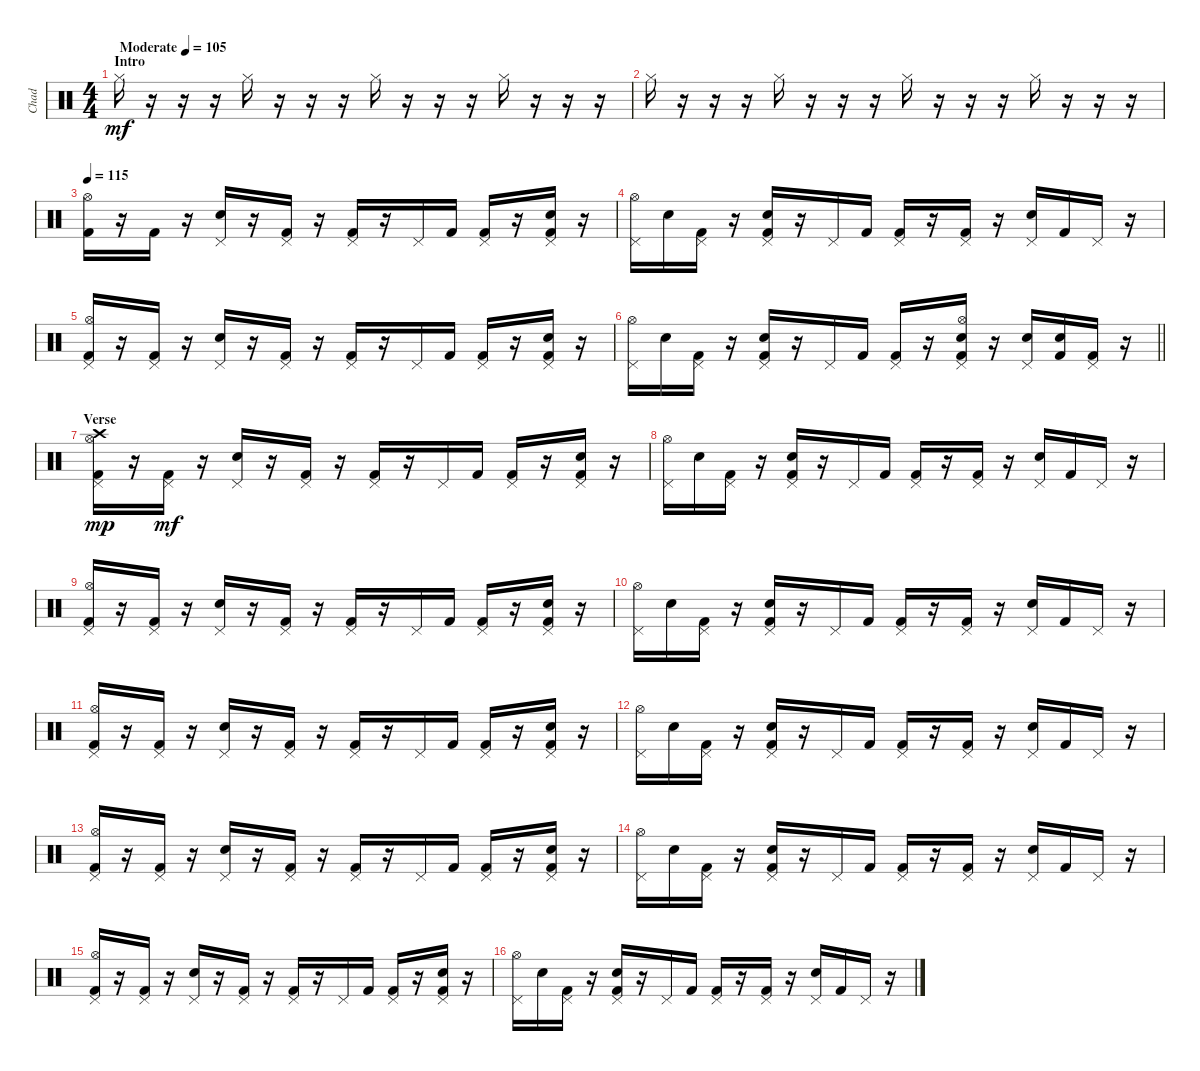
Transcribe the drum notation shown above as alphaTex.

\track ("Chad" "Chad") {instrument percussion}
\staff {score}
\articulation defaults
\ts (4 4)
\section ("" "Intro")
\tempo (105 "Moderate")
\clef neutral
\ks c "Hi-Hat (closed)".16{dy mf volume 0}
r.16{volume 1} r.16 r.16 "Hi-Hat (closed)".16 r.16 r.16 r.16 "Hi-Hat (closed)".16 r.16 r.16 r.16 "Hi-Hat (closed)".16 r.16 r.16 r.16 |
"Hi-Hat (closed)".16 r.16 r.16 r.16 "Hi-Hat (closed)".16 r.16 r.16 r.16 "Hi-Hat (closed)".16 r.16 r.16 r.16 "Hi-Hat (closed)".16 r.16 r.16 r.16 |
\tempo 115
("Kick (hit) 2" "Hi-Hat (open)").16{volume 16} r.16 "Kick (hit) 2".16 r.16 ("Snare (hit) 2" "Pedal Hi-Hat (hit)").16 r.16 ("Kick (hit) 2" "Pedal Hi-Hat (hit)").16 r.16 ("Kick (hit) 2" "Pedal Hi-Hat (hit)").16 r.16 "Pedal Hi-Hat (hit)".16 "Kick (hit) 2".16 ("Kick (hit) 2" "Pedal Hi-Hat (hit)").16 r.16 ("Kick (hit) 2" "Snare (hit) 2" "Pedal Hi-Hat (hit)").16 r.16 |
("Pedal Hi-Hat (hit)" "Hi-Hat (open)").16 "Snare (hit) 2".16 ("Kick (hit) 2" "Pedal Hi-Hat (hit)").16 r.16 ("Kick (hit) 2" "Snare (hit) 2" "Pedal Hi-Hat (hit)").16 r.16 "Pedal Hi-Hat (hit)".16 "Kick (hit) 2".16 ("Kick (hit) 2" "Pedal Hi-Hat (hit)").16 r.16 ("Kick (hit) 2" "Pedal Hi-Hat (hit)").16 r.16 ("Snare (hit) 2" "Pedal Hi-Hat (hit)").16 "Kick (hit) 2".16 "Pedal Hi-Hat (hit)".16 r.16 |
("Kick (hit) 2" "Pedal Hi-Hat (hit)" "Hi-Hat (open)").16 r.16 ("Kick (hit) 2" "Pedal Hi-Hat (hit)").16 r.16 ("Snare (hit) 2" "Pedal Hi-Hat (hit)").16 r.16 ("Kick (hit) 2" "Pedal Hi-Hat (hit)").16 r.16 ("Kick (hit) 2" "Pedal Hi-Hat (hit)").16 r.16 "Pedal Hi-Hat (hit)".16 "Kick (hit) 2".16 ("Kick (hit) 2" "Pedal Hi-Hat (hit)").16 r.16 ("Kick (hit) 2" "Snare (hit) 2" "Pedal Hi-Hat (hit)").16 r.16 |
\barLineRight lightlight
("Pedal Hi-Hat (hit)" "Hi-Hat (open)").16 "Snare (hit) 2".16 ("Kick (hit) 2" "Pedal Hi-Hat (hit)").16 r.16 ("Kick (hit) 2" "Snare (hit) 2" "Pedal Hi-Hat (hit)").16 r.16 "Pedal Hi-Hat (hit)".16 "Kick (hit) 2".16 ("Kick (hit) 2" "Pedal Hi-Hat (hit)").16 r.16 ("Kick (hit) 2" "Snare (hit) 2" "Pedal Hi-Hat (hit)" "Hi-Hat (open)").16 r.16 ("Snare (hit) 2" "Pedal Hi-Hat (hit)").16 ("Kick (hit) 2" "Snare (hit) 2").16 ("Kick (hit) 2" "Pedal Hi-Hat (hit)").16 r.16 |
\section ("" "Verse")
("Kick (hit) 2" "Pedal Hi-Hat (hit)" "Hi-Hat (open)" "Crash high (hit)").16{dy mp} r.16 ("Kick (hit) 2" "Pedal Hi-Hat (hit)").16{dy mf} r.16 ("Snare (hit) 2" "Pedal Hi-Hat (hit)").16 r.16 ("Kick (hit) 2" "Pedal Hi-Hat (hit)").16 r.16 ("Kick (hit) 2" "Pedal Hi-Hat (hit)").16 r.16 "Pedal Hi-Hat (hit)".16 "Kick (hit) 2".16 ("Kick (hit) 2" "Pedal Hi-Hat (hit)").16 r.16 ("Kick (hit) 2" "Snare (hit) 2" "Pedal Hi-Hat (hit)").16 r.16 |
("Pedal Hi-Hat (hit)" "Hi-Hat (open)").16 "Snare (hit) 2".16 ("Kick (hit) 2" "Pedal Hi-Hat (hit)").16 r.16 ("Kick (hit) 2" "Snare (hit) 2" "Pedal Hi-Hat (hit)").16 r.16 "Pedal Hi-Hat (hit)".16 "Kick (hit) 2".16 ("Kick (hit) 2" "Pedal Hi-Hat (hit)").16 r.16 ("Kick (hit) 2" "Pedal Hi-Hat (hit)").16 r.16 ("Snare (hit) 2" "Pedal Hi-Hat (hit)").16 "Kick (hit) 2".16 "Pedal Hi-Hat (hit)".16 r.16 |
("Kick (hit) 2" "Pedal Hi-Hat (hit)" "Hi-Hat (open)").16 r.16 ("Kick (hit) 2" "Pedal Hi-Hat (hit)").16 r.16 ("Snare (hit) 2" "Pedal Hi-Hat (hit)").16 r.16 ("Kick (hit) 2" "Pedal Hi-Hat (hit)").16 r.16 ("Kick (hit) 2" "Pedal Hi-Hat (hit)").16 r.16 "Pedal Hi-Hat (hit)".16 "Kick (hit) 2".16 ("Kick (hit) 2" "Pedal Hi-Hat (hit)").16 r.16 ("Kick (hit) 2" "Snare (hit) 2" "Pedal Hi-Hat (hit)").16 r.16 |
("Pedal Hi-Hat (hit)" "Hi-Hat (open)").16 "Snare (hit) 2".16 ("Kick (hit) 2" "Pedal Hi-Hat (hit)").16 r.16 ("Kick (hit) 2" "Snare (hit) 2" "Pedal Hi-Hat (hit)").16 r.16 "Pedal Hi-Hat (hit)".16 "Kick (hit) 2".16 ("Kick (hit) 2" "Pedal Hi-Hat (hit)").16 r.16 ("Kick (hit) 2" "Pedal Hi-Hat (hit)").16 r.16 ("Snare (hit) 2" "Pedal Hi-Hat (hit)").16 "Kick (hit) 2".16 "Pedal Hi-Hat (hit)".16 r.16 |
("Kick (hit) 2" "Pedal Hi-Hat (hit)" "Hi-Hat (open)").16 r.16 ("Kick (hit) 2" "Pedal Hi-Hat (hit)").16 r.16 ("Snare (hit) 2" "Pedal Hi-Hat (hit)").16 r.16 ("Kick (hit) 2" "Pedal Hi-Hat (hit)").16 r.16 ("Kick (hit) 2" "Pedal Hi-Hat (hit)").16 r.16 "Pedal Hi-Hat (hit)".16 "Kick (hit) 2".16 ("Kick (hit) 2" "Pedal Hi-Hat (hit)").16 r.16 ("Kick (hit) 2" "Snare (hit) 2" "Pedal Hi-Hat (hit)").16 r.16 |
("Pedal Hi-Hat (hit)" "Hi-Hat (open)").16 "Snare (hit) 2".16 ("Kick (hit) 2" "Pedal Hi-Hat (hit)").16 r.16 ("Kick (hit) 2" "Snare (hit) 2" "Pedal Hi-Hat (hit)").16 r.16 "Pedal Hi-Hat (hit)".16 "Kick (hit) 2".16 ("Kick (hit) 2" "Pedal Hi-Hat (hit)").16 r.16 ("Kick (hit) 2" "Pedal Hi-Hat (hit)").16 r.16 ("Snare (hit) 2" "Pedal Hi-Hat (hit)").16 "Kick (hit) 2".16 "Pedal Hi-Hat (hit)".16 r.16 |
("Kick (hit) 2" "Pedal Hi-Hat (hit)" "Hi-Hat (open)").16 r.16 ("Kick (hit) 2" "Pedal Hi-Hat (hit)").16 r.16 ("Snare (hit) 2" "Pedal Hi-Hat (hit)").16 r.16 ("Kick (hit) 2" "Pedal Hi-Hat (hit)").16 r.16 ("Kick (hit) 2" "Pedal Hi-Hat (hit)").16 r.16 "Pedal Hi-Hat (hit)".16 "Kick (hit) 2".16 ("Kick (hit) 2" "Pedal Hi-Hat (hit)").16 r.16 ("Kick (hit) 2" "Snare (hit) 2" "Pedal Hi-Hat (hit)").16 r.16 |
("Pedal Hi-Hat (hit)" "Hi-Hat (open)").16 "Snare (hit) 2".16 ("Kick (hit) 2" "Pedal Hi-Hat (hit)").16 r.16 ("Kick (hit) 2" "Snare (hit) 2" "Pedal Hi-Hat (hit)").16 r.16 "Pedal Hi-Hat (hit)".16 "Kick (hit) 2".16 ("Kick (hit) 2" "Pedal Hi-Hat (hit)").16 r.16 ("Kick (hit) 2" "Pedal Hi-Hat (hit)").16 r.16 ("Snare (hit) 2" "Pedal Hi-Hat (hit)").16 "Kick (hit) 2".16 "Pedal Hi-Hat (hit)".16 r.16 |
("Kick (hit) 2" "Pedal Hi-Hat (hit)" "Hi-Hat (open)").16 r.16 ("Kick (hit) 2" "Pedal Hi-Hat (hit)").16 r.16 ("Snare (hit) 2" "Pedal Hi-Hat (hit)").16 r.16 ("Kick (hit) 2" "Pedal Hi-Hat (hit)").16 r.16 ("Kick (hit) 2" "Pedal Hi-Hat (hit)").16 r.16 "Pedal Hi-Hat (hit)".16 "Kick (hit) 2".16 ("Kick (hit) 2" "Pedal Hi-Hat (hit)").16 r.16 ("Kick (hit) 2" "Snare (hit) 2" "Pedal Hi-Hat (hit)").16 r.16 |
("Pedal Hi-Hat (hit)" "Hi-Hat (open)").16 "Snare (hit) 2".16 ("Kick (hit) 2" "Pedal Hi-Hat (hit)").16 r.16 ("Kick (hit) 2" "Snare (hit) 2" "Pedal Hi-Hat (hit)").16 r.16 "Pedal Hi-Hat (hit)".16 "Kick (hit) 2".16 ("Kick (hit) 2" "Pedal Hi-Hat (hit)").16 r.16 ("Kick (hit) 2" "Pedal Hi-Hat (hit)").16 r.16 ("Snare (hit) 2" "Pedal Hi-Hat (hit)").16 "Kick (hit) 2".16 "Pedal Hi-Hat (hit)".16 r.16
